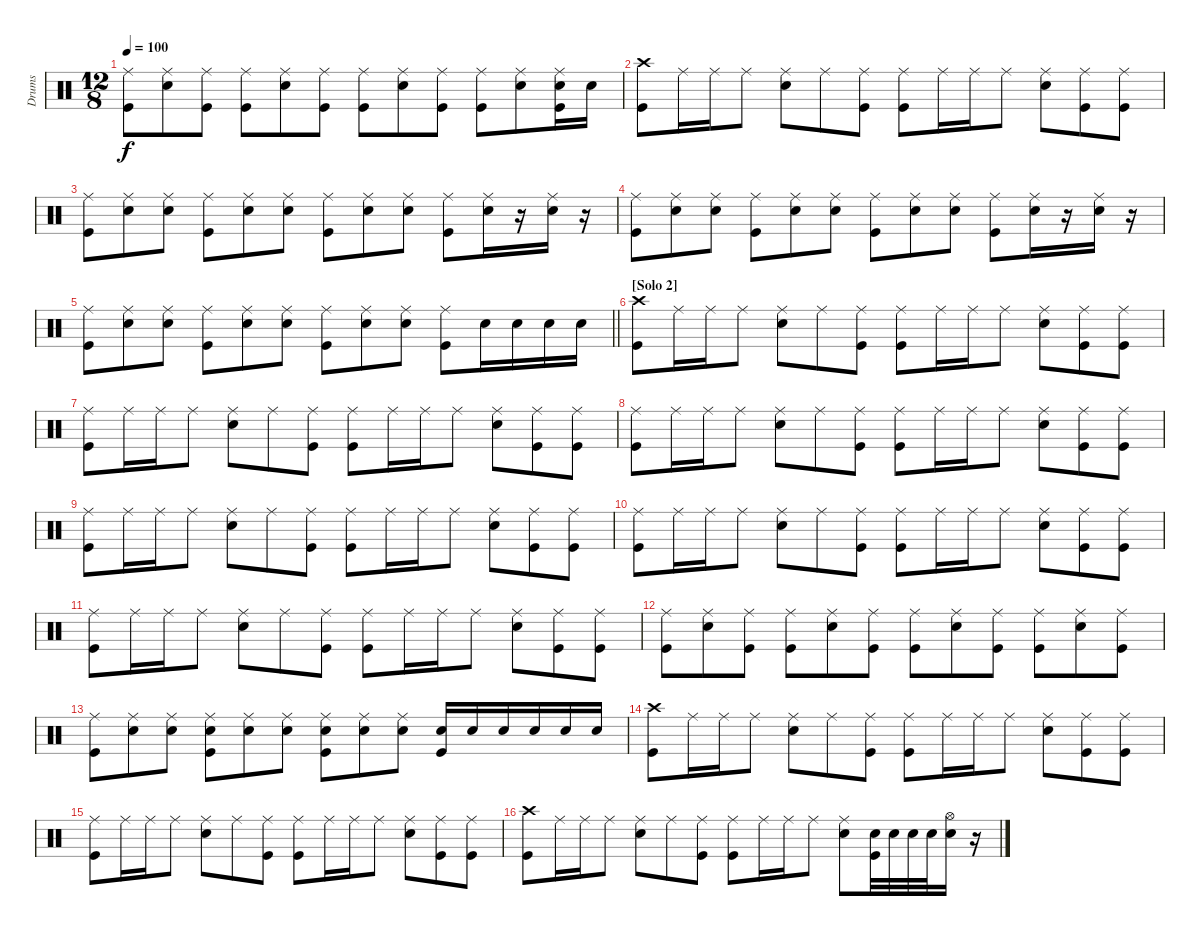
\track ("Drums" "Drums") {instrument percussion}
\staff {score}
\articulation defaults
\ts (12 8)
\tempo 100
\clef neutral
\ks c
("Ride (middle)" "Kick (hit)").8{dy f} ("Ride (middle)" "Electric Snare (hit)").8 ("Ride (middle)" "Kick (hit)").8 ("Ride (middle)" "Kick (hit)").8 ("Ride (middle)" "Electric Snare (hit)").8 ("Ride (middle)" "Kick (hit)").8 ("Ride (middle)" "Kick (hit)").8 ("Ride (middle)" "Electric Snare (hit)").8 ("Ride (middle)" "Kick (hit)").8 ("Ride (middle)" "Kick (hit)").8 ("Ride (middle)" "Electric Snare (hit)").8 ("Ride (middle)" "Electric Snare (hit)" "Kick (hit)").16 "Electric Snare (hit)".16 |
("Crash high (hit)" "Kick (hit)").8 "Ride (middle)".16 "Ride (middle)".16 "Ride (middle)".8 ("Ride (middle)" "Electric Snare (hit)").8 "Ride (middle)".8 ("Ride (middle)" "Kick (hit)").8 ("Ride (middle)" "Kick (hit)").8 "Ride (middle)".16 "Ride (middle)".16 "Ride (middle)".8 ("Ride (middle)" "Electric Snare (hit)").8 ("Ride (middle)" "Kick (hit)").8 ("Ride (middle)" "Kick (hit)").8 |
("Ride (middle)" "Kick (hit)").8 ("Ride (middle)" "Electric Snare (hit)").8 ("Ride (middle)" "Electric Snare (hit)").8 ("Ride (middle)" "Kick (hit)").8 ("Ride (middle)" "Electric Snare (hit)").8 ("Ride (middle)" "Electric Snare (hit)").8 ("Ride (middle)" "Kick (hit)").8 ("Ride (middle)" "Electric Snare (hit)").8 ("Ride (middle)" "Electric Snare (hit)").8 ("Ride (middle)" "Kick (hit)").8 ("Ride (middle)" "Electric Snare (hit)").16 r.16 ("Ride (middle)" "Electric Snare (hit)").16 r.16 |
("Ride (middle)" "Kick (hit)").8 ("Ride (middle)" "Electric Snare (hit)").8 ("Ride (middle)" "Electric Snare (hit)").8 ("Ride (middle)" "Kick (hit)").8 ("Ride (middle)" "Electric Snare (hit)").8 ("Ride (middle)" "Electric Snare (hit)").8 ("Ride (middle)" "Kick (hit)").8 ("Ride (middle)" "Electric Snare (hit)").8 ("Ride (middle)" "Electric Snare (hit)").8 ("Ride (middle)" "Kick (hit)").8 ("Ride (middle)" "Electric Snare (hit)").16 r.16 ("Ride (middle)" "Electric Snare (hit)").16 r.16 |
\barLineRight lightlight
("Ride (middle)" "Kick (hit)").8 ("Ride (middle)" "Electric Snare (hit)").8 ("Ride (middle)" "Electric Snare (hit)").8 ("Ride (middle)" "Kick (hit)").8 ("Ride (middle)" "Electric Snare (hit)").8 ("Ride (middle)" "Electric Snare (hit)").8 ("Ride (middle)" "Kick (hit)").8 ("Ride (middle)" "Electric Snare (hit)").8 ("Ride (middle)" "Electric Snare (hit)").8 ("Ride (middle)" "Kick (hit)").8 "Electric Snare (hit)".16 "Electric Snare (hit)".16 "Electric Snare (hit)".16 "Electric Snare (hit)".16 |
\section ("" "[Solo 2]")
("Crash high (hit)" "Kick (hit)").8 "Ride (middle)".16 "Ride (middle)".16 "Ride (middle)".8 ("Ride (middle)" "Electric Snare (hit)").8 "Ride (middle)".8 ("Ride (middle)" "Kick (hit)").8 ("Ride (middle)" "Kick (hit)").8 "Ride (middle)".16 "Ride (middle)".16 "Ride (middle)".8 ("Ride (middle)" "Electric Snare (hit)").8 ("Ride (middle)" "Kick (hit)").8 ("Ride (middle)" "Kick (hit)").8 |
("Ride (middle)" "Kick (hit)").8 "Ride (middle)".16 "Ride (middle)".16 "Ride (middle)".8 ("Ride (middle)" "Electric Snare (hit)").8 "Ride (middle)".8 ("Ride (middle)" "Kick (hit)").8 ("Ride (middle)" "Kick (hit)").8 "Ride (middle)".16 "Ride (middle)".16 "Ride (middle)".8 ("Ride (middle)" "Electric Snare (hit)").8 ("Ride (middle)" "Kick (hit)").8 ("Ride (middle)" "Kick (hit)").8 |
("Ride (middle)" "Kick (hit)").8 "Ride (middle)".16 "Ride (middle)".16 "Ride (middle)".8 ("Ride (middle)" "Electric Snare (hit)").8 "Ride (middle)".8 ("Ride (middle)" "Kick (hit)").8 ("Ride (middle)" "Kick (hit)").8 "Ride (middle)".16 "Ride (middle)".16 "Ride (middle)".8 ("Ride (middle)" "Electric Snare (hit)").8 ("Ride (middle)" "Kick (hit)").8 ("Ride (middle)" "Kick (hit)").8 |
("Ride (middle)" "Kick (hit)").8 "Ride (middle)".16 "Ride (middle)".16 "Ride (middle)".8 ("Ride (middle)" "Electric Snare (hit)").8 "Ride (middle)".8 ("Ride (middle)" "Kick (hit)").8 ("Ride (middle)" "Kick (hit)").8 "Ride (middle)".16 "Ride (middle)".16 "Ride (middle)".8 ("Ride (middle)" "Electric Snare (hit)").8 ("Ride (middle)" "Kick (hit)").8 ("Ride (middle)" "Kick (hit)").8 |
("Ride (middle)" "Kick (hit)").8 "Ride (middle)".16 "Ride (middle)".16 "Ride (middle)".8 ("Ride (middle)" "Electric Snare (hit)").8 "Ride (middle)".8 ("Ride (middle)" "Kick (hit)").8 ("Ride (middle)" "Kick (hit)").8 "Ride (middle)".16 "Ride (middle)".16 "Ride (middle)".8 ("Ride (middle)" "Electric Snare (hit)").8 ("Ride (middle)" "Kick (hit)").8 ("Ride (middle)" "Kick (hit)").8 |
("Ride (middle)" "Kick (hit)").8 "Ride (middle)".16 "Ride (middle)".16 "Ride (middle)".8 ("Ride (middle)" "Electric Snare (hit)").8 "Ride (middle)".8 ("Ride (middle)" "Kick (hit)").8 ("Ride (middle)" "Kick (hit)").8 "Ride (middle)".16 "Ride (middle)".16 "Ride (middle)".8 ("Ride (middle)" "Electric Snare (hit)").8 ("Ride (middle)" "Kick (hit)").8 ("Ride (middle)" "Kick (hit)").8 |
("Ride (middle)" "Kick (hit)").8 ("Ride (middle)" "Electric Snare (hit)").8 ("Ride (middle)" "Kick (hit)").8 ("Ride (middle)" "Kick (hit)").8 ("Ride (middle)" "Electric Snare (hit)").8 ("Ride (middle)" "Kick (hit)").8 ("Ride (middle)" "Kick (hit)").8 ("Ride (middle)" "Electric Snare (hit)").8 ("Ride (middle)" "Kick (hit)").8 ("Ride (middle)" "Kick (hit)").8 ("Ride (middle)" "Electric Snare (hit)").8 ("Ride (middle)" "Kick (hit)").8 |
("Ride (middle)" "Kick (hit)").8 ("Ride (middle)" "Electric Snare (hit)").8 ("Ride (middle)" "Electric Snare (hit)").8 ("Ride (middle)" "Electric Snare (hit)" "Kick (hit)").8 ("Ride (middle)" "Electric Snare (hit)").8 ("Ride (middle)" "Electric Snare (hit)").8 ("Ride (middle)" "Electric Snare (hit)" "Kick (hit)").8 ("Ride (middle)" "Electric Snare (hit)").8 ("Ride (middle)" "Electric Snare (hit)").8 ("Electric Snare (hit)" "Kick (hit)").16 "Electric Snare (hit)".16 "Electric Snare (hit)".16 "Electric Snare (hit)".16 "Electric Snare (hit)".16 "Electric Snare (hit)".16 |
("Crash high (hit)" "Kick (hit)").8 "Ride (middle)".16 "Ride (middle)".16 "Ride (middle)".8 ("Ride (middle)" "Electric Snare (hit)").8 "Ride (middle)".8 ("Ride (middle)" "Kick (hit)").8 ("Ride (middle)" "Kick (hit)").8 "Ride (middle)".16 "Ride (middle)".16 "Ride (middle)".8 ("Ride (middle)" "Electric Snare (hit)").8 ("Ride (middle)" "Kick (hit)").8 ("Ride (middle)" "Kick (hit)").8 |
("Ride (middle)" "Kick (hit)").8 "Ride (middle)".16 "Ride (middle)".16 "Ride (middle)".8 ("Ride (middle)" "Electric Snare (hit)").8 "Ride (middle)".8 ("Ride (middle)" "Kick (hit)").8 ("Ride (middle)" "Kick (hit)").8 "Ride (middle)".16 "Ride (middle)".16 "Ride (middle)".8 ("Ride (middle)" "Electric Snare (hit)").8 ("Ride (middle)" "Kick (hit)").8 ("Ride (middle)" "Kick (hit)").8 |
("Crash high (hit)" "Kick (hit)").8 "Ride (middle)".16 "Ride (middle)".16 "Ride (middle)".8 ("Ride (middle)" "Electric Snare (hit)").8 "Ride (middle)".8 ("Ride (middle)" "Kick (hit)").8 ("Ride (middle)" "Kick (hit)").8 "Ride (middle)".16 "Ride (middle)".16 "Ride (middle)".8 ("Ride (middle)" "Electric Snare (hit)").8 ("Electric Snare (hit)" "Kick (hit)").32 "Electric Snare (hit)".32 "Electric Snare (hit)".32 "Electric Snare (hit)".32 ("Hi-Hat (open)" "Electric Snare (hit)").16 r.16
